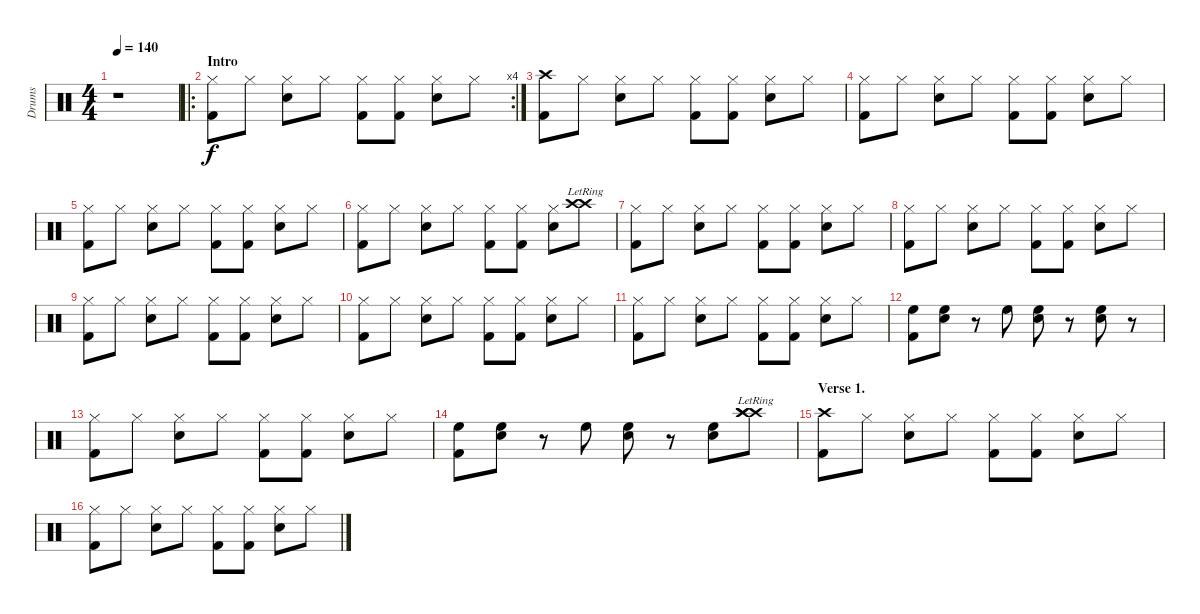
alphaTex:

\track ("Drums" "Drums") {instrument percussion}
\staff {score}
\articulation defaults
\ts (4 4)
\tempo 140
\clef neutral
\ks c
r.1{dy f} |
\ro
\rc 4
\section ("" "Intro")
("Hi-Hat (closed)" "Kick (hit) 2").8 "Hi-Hat (closed)".8 ("Hi-Hat (closed)" "Snare (hit) 2").8 "Hi-Hat (closed)".8 ("Hi-Hat (closed)" "Kick (hit) 2").8 ("Hi-Hat (closed)" "Kick (hit) 2").8 ("Hi-Hat (closed)" "Snare (hit) 2").8 "Hi-Hat (closed)".8 |
("Crash high (hit)" "Kick (hit) 2").8 "Hi-Hat (closed)".8 ("Hi-Hat (closed)" "Snare (hit) 2").8 "Hi-Hat (closed)".8 ("Hi-Hat (closed)" "Kick (hit) 2").8 ("Hi-Hat (closed)" "Kick (hit) 2").8 ("Hi-Hat (closed)" "Snare (hit) 2").8 "Hi-Hat (closed)".8 |
("Hi-Hat (closed)" "Kick (hit) 2").8 "Hi-Hat (closed)".8 ("Hi-Hat (closed)" "Snare (hit) 2").8 "Hi-Hat (closed)".8 ("Hi-Hat (closed)" "Kick (hit) 2").8 ("Hi-Hat (closed)" "Kick (hit) 2").8 ("Hi-Hat (closed)" "Snare (hit) 2").8 "Hi-Hat (closed)".8 |
("Hi-Hat (closed)" "Kick (hit) 2").8 "Hi-Hat (closed)".8 ("Hi-Hat (closed)" "Snare (hit) 2").8 "Hi-Hat (closed)".8 ("Hi-Hat (closed)" "Kick (hit) 2").8 ("Hi-Hat (closed)" "Kick (hit) 2").8 ("Hi-Hat (closed)" "Snare (hit) 2").8 "Hi-Hat (closed)".8 |
("Hi-Hat (closed)" "Kick (hit) 2").8 "Hi-Hat (closed)".8 ("Hi-Hat (closed)" "Snare (hit) 2").8 "Hi-Hat (closed)".8 ("Hi-Hat (closed)" "Kick (hit) 2").8 ("Hi-Hat (closed)" "Kick (hit) 2").8 ("Hi-Hat (closed)" "Snare (hit) 2").8 ("Crash high (hit)"{lr} "Crash high (hit)"{lr}).8 |
("Hi-Hat (closed)" "Kick (hit) 2").8 "Hi-Hat (closed)".8 ("Hi-Hat (closed)" "Snare (hit) 2").8 "Hi-Hat (closed)".8 ("Hi-Hat (closed)" "Kick (hit) 2").8 ("Hi-Hat (closed)" "Kick (hit) 2").8 ("Hi-Hat (closed)" "Snare (hit) 2").8 "Hi-Hat (closed)".8 |
("Hi-Hat (closed)" "Kick (hit) 2").8 "Hi-Hat (closed)".8 ("Hi-Hat (closed)" "Snare (hit) 2").8 "Hi-Hat (closed)".8 ("Hi-Hat (closed)" "Kick (hit) 2").8 ("Hi-Hat (closed)" "Kick (hit) 2").8 ("Hi-Hat (closed)" "Snare (hit) 2").8 "Hi-Hat (closed)".8 |
("Hi-Hat (closed)" "Kick (hit) 2").8 "Hi-Hat (closed)".8 ("Hi-Hat (closed)" "Snare (hit) 2").8 "Hi-Hat (closed)".8 ("Hi-Hat (closed)" "Kick (hit) 2").8 ("Hi-Hat (closed)" "Kick (hit) 2").8 ("Hi-Hat (closed)" "Snare (hit) 2").8 "Hi-Hat (closed)".8 |
("Hi-Hat (closed)" "Kick (hit) 2").8 "Hi-Hat (closed)".8 ("Hi-Hat (closed)" "Snare (hit) 2").8 "Hi-Hat (closed)".8 ("Hi-Hat (closed)" "Kick (hit) 2").8 ("Hi-Hat (closed)" "Kick (hit) 2").8 ("Hi-Hat (closed)" "Snare (hit) 2").8 "Hi-Hat (closed)".8 |
("Hi-Hat (closed)" "Kick (hit) 2").8 "Hi-Hat (closed)".8 ("Hi-Hat (closed)" "Snare (hit) 2").8 "Hi-Hat (closed)".8 ("Hi-Hat (closed)" "Kick (hit) 2").8 ("Hi-Hat (closed)" "Kick (hit) 2").8 ("Hi-Hat (closed)" "Snare (hit) 2").8 "Hi-Hat (closed)".8 |
("High Floor Tom (hit)" "Kick (hit) 2").8 ("High Floor Tom (hit)" "Snare (hit) 2").8 r.8 "High Floor Tom (hit)".8 ("High Floor Tom (hit)" "Snare (hit) 2").8 r.8 ("High Floor Tom (hit)" "Snare (hit) 2").8 r.8 |
("Hi-Hat (closed)" "Kick (hit) 2").8 "Hi-Hat (closed)".8 ("Hi-Hat (closed)" "Snare (hit) 2").8 "Hi-Hat (closed)".8 ("Hi-Hat (closed)" "Kick (hit) 2").8 ("Hi-Hat (closed)" "Kick (hit) 2").8 ("Hi-Hat (closed)" "Snare (hit) 2").8 "Hi-Hat (closed)".8 |
("High Floor Tom (hit)" "Kick (hit) 2").8 ("High Floor Tom (hit)" "Snare (hit) 2").8 r.8 "High Floor Tom (hit)".8 ("High Floor Tom (hit)" "Snare (hit) 2").8 r.8 ("High Floor Tom (hit)" "Snare (hit) 2").8 ("Crash high (hit)"{lr} "Crash high (hit)"{lr} "Crash high (hit)"{lr}).8 |
\section ("" "Verse 1.")
("Crash high (hit)" "Kick (hit) 2").8 "Hi-Hat (closed)".8 ("Hi-Hat (closed)" "Snare (hit) 2").8 "Hi-Hat (closed)".8 ("Hi-Hat (closed)" "Kick (hit) 2").8 ("Hi-Hat (closed)" "Kick (hit) 2").8 ("Hi-Hat (closed)" "Snare (hit) 2").8 "Hi-Hat (closed)".8 |
("Hi-Hat (closed)" "Kick (hit) 2").8 "Hi-Hat (closed)".8 ("Hi-Hat (closed)" "Snare (hit) 2").8 "Hi-Hat (closed)".8 ("Hi-Hat (closed)" "Kick (hit) 2").8 ("Hi-Hat (closed)" "Kick (hit) 2").8 ("Hi-Hat (closed)" "Snare (hit) 2").8 "Hi-Hat (closed)".8
